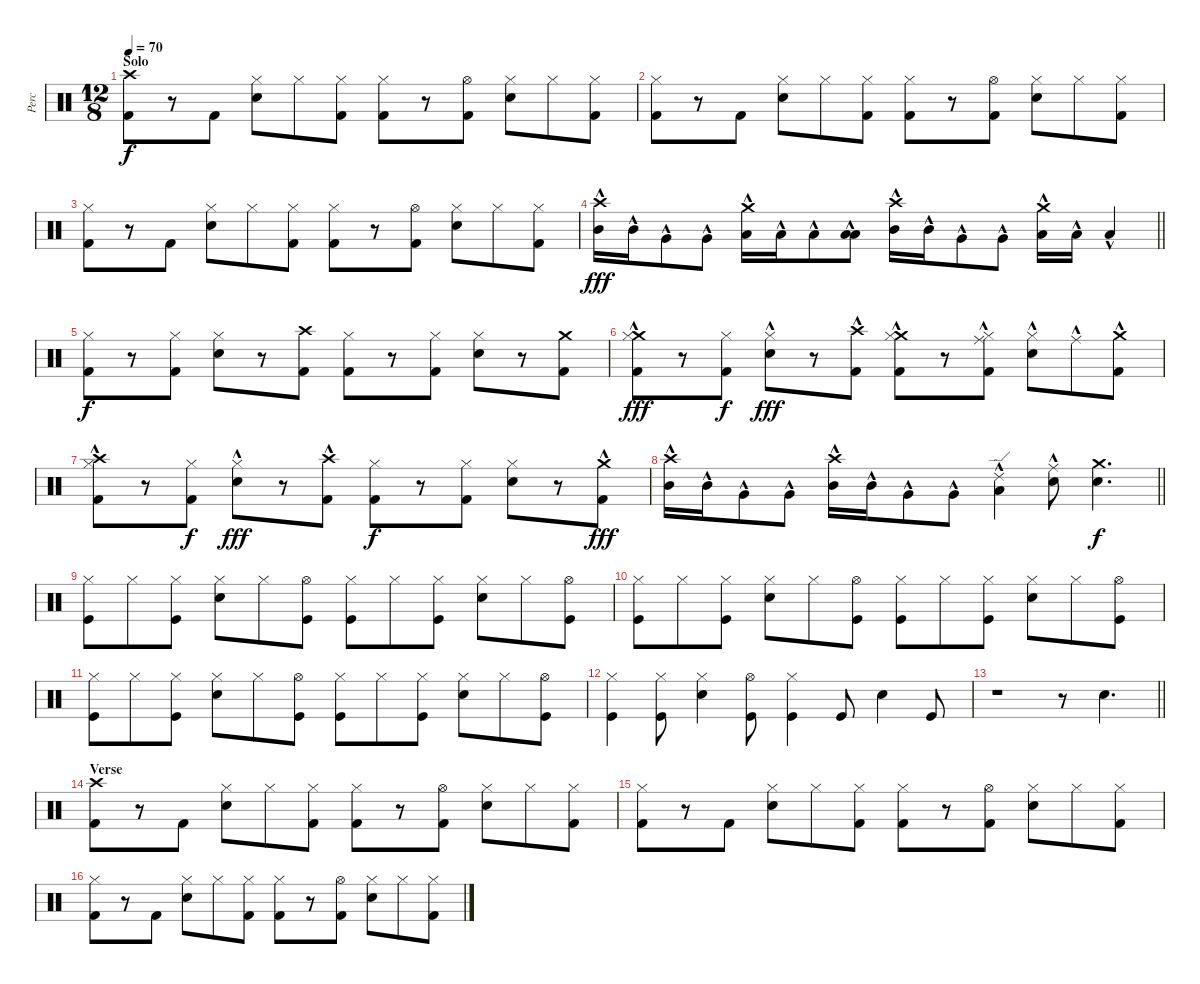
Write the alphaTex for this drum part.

\track ("Perc" "Perc") {instrument percussion}
\staff {score}
\articulation defaults
\ts (12 8)
\section ("" "Solo")
\tempo 70
\clef neutral
\ks c
("Crash high (hit)" "Kick (hit) 2").8{dy f} r.8 "Kick (hit) 2".8 ("Hi-Hat (closed)" "Electric Snare (hit)").8 "Hi-Hat (closed)".8 ("Hi-Hat (closed)" "Kick (hit) 2").8 ("Hi-Hat (closed)" "Kick (hit) 2").8 r.8 ("Hi-Hat (open)" "Kick (hit) 2").8 ("Hi-Hat (closed)" "Electric Snare (hit)").8 "Hi-Hat (closed)".8 ("Hi-Hat (closed)" "Kick (hit) 2").8 |
("Kick (hit) 2" "Hi-Hat (closed)").8 r.8 "Kick (hit) 2".8 ("Hi-Hat (closed)" "Electric Snare (hit)").8 "Hi-Hat (closed)".8 ("Hi-Hat (closed)" "Kick (hit) 2").8 ("Hi-Hat (closed)" "Kick (hit) 2").8 r.8 ("Hi-Hat (open)" "Kick (hit) 2").8 ("Hi-Hat (closed)" "Electric Snare (hit)").8 "Hi-Hat (closed)".8 ("Hi-Hat (closed)" "Kick (hit) 2").8 |
("Kick (hit) 2" "Hi-Hat (closed)").8 r.8 "Kick (hit) 2".8 ("Hi-Hat (closed)" "Electric Snare (hit)").8 "Hi-Hat (closed)".8 ("Hi-Hat (closed)" "Kick (hit) 2").8 ("Hi-Hat (closed)" "Kick (hit) 2").8 r.8 ("Hi-Hat (open)" "Kick (hit) 2").8 ("Hi-Hat (closed)" "Electric Snare (hit)").8 "Hi-Hat (closed)".8 ("Hi-Hat (closed)" "Kick (hit) 2").8 |
\barLineRight lightlight
("Mid Tom (hit)"{hac} "Crash high (hit)").16{dy fff} "Mid Tom (hit)"{hac}.16 "Very Low Tom (hit)"{hac}.8 "Very Low Tom (hit)"{hac}.8 ("Low Tom (hit)"{hac} "Crash medium (hit)").16 "Low Tom (hit)"{hac}.16 "Low Floor Tom (hit)"{hac}.8 ("Low Floor Tom (hit)"{hac} "Low Floor Tom (hit)").8 ("Mid Tom (hit)"{hac} "Crash high (hit)").16 "Mid Tom (hit)"{hac}.16 "Very Low Tom (hit)"{hac}.8 "Very Low Tom (hit)"{hac}.8 ("Low Tom (hit)"{hac} "Crash medium (hit)").16 "Low Tom (hit)"{hac}.16 "Low Floor Tom (hit)"{hac}.4 |
("Kick (hit) 2" "Hi-Hat (closed)").8{dy f} r.8 ("Kick (hit) 2" "Hi-Hat (closed)").8 ("Hi-Hat (closed)" "Electric Snare (hit)").8 r.8 ("Crash high (hit)" "Kick (hit) 2").8 ("Kick (hit) 2" "Hi-Hat (closed)").8 r.8 ("Kick (hit) 2" "Hi-Hat (closed)").8 ("Hi-Hat (closed)" "Electric Snare (hit)").8 r.8 ("Crash medium (hit)" "Kick (hit) 2").8 |
("Crash medium (hit)"{hac} "Kick (hit) 2" "Hi-Hat (closed)").8{dy fff} r.8 ("Kick (hit) 2" "Hi-Hat (closed)").8{dy f} ("Hi-Hat (closed)" "Electric Snare (hit)"{hac}).8{dy fff} r.8 ("Crash high (hit)"{hac} "Kick (hit) 2").8 ("Crash medium (hit)"{hac} "Kick (hit) 2" "Hi-Hat (closed)").8 r.8 ("Ride (middle)"{hac} "Kick (hit) 2" "Hi-Hat (closed)").8 ("Hi-Hat (closed)" "Electric Snare (hit)"{hac}).8 "Ride (middle)"{hac}.8 ("Crash medium (hit)"{hac} "Kick (hit) 2").8 |
("Crash high (hit)"{hac} "Kick (hit) 2" "Hi-Hat (closed)").8 r.8 ("Kick (hit) 2" "Hi-Hat (closed)").8{dy f} ("Hi-Hat (closed)" "Electric Snare (hit)"{hac}).8{dy fff} r.8 ("Crash high (hit)"{hac} "Kick (hit) 2").8 ("Kick (hit) 2" "Hi-Hat (closed)").8{dy f} r.8 ("Kick (hit) 2" "Hi-Hat (closed)").8 ("Hi-Hat (closed)" "Electric Snare (hit)").8 r.8 ("Crash medium (hit)"{hac} "Kick (hit) 2").8{dy fff} |
\barLineRight lightlight
("Mid Tom (hit)"{hac} "Crash high (hit)").16 "Mid Tom (hit)"{hac}.16 "Very Low Tom (hit)"{hac}.8 "Very Low Tom (hit)"{hac}.8 ("Mid Tom (hit)"{hac} "Crash high (hit)").16 "Mid Tom (hit)"{hac}.16 "Very Low Tom (hit)"{hac}.8 "Very Low Tom (hit)"{hac}.8 ("Low Floor Tom (hit)"{hac} "Ride (edge) 2").4 ("Snare (hit) 2"{hac} "Ride (middle)").8 ("Electric Snare (hit)" "Crash medium (hit)").4{d dy f} |
("Hi-Hat (closed)" "Kick (hit)").8 "Hi-Hat (closed)".8 ("Hi-Hat (closed)" "Kick (hit)").8 ("Hi-Hat (closed)" "Snare (hit) 2").8 "Hi-Hat (closed)".8 ("Hi-Hat (open)" "Kick (hit)").8 ("Hi-Hat (closed)" "Kick (hit)").8 "Hi-Hat (closed)".8 ("Hi-Hat (closed)" "Kick (hit)").8 ("Hi-Hat (closed)" "Snare (hit) 2").8 "Hi-Hat (closed)".8 ("Hi-Hat (open)" "Kick (hit)").8 |
("Hi-Hat (closed)" "Kick (hit)").8 "Hi-Hat (closed)".8 ("Hi-Hat (closed)" "Kick (hit)").8 ("Hi-Hat (closed)" "Snare (hit) 2").8 "Hi-Hat (closed)".8 ("Hi-Hat (open)" "Kick (hit)").8 ("Hi-Hat (closed)" "Kick (hit)").8 "Hi-Hat (closed)".8 ("Hi-Hat (closed)" "Kick (hit)").8 ("Hi-Hat (closed)" "Snare (hit) 2").8 "Hi-Hat (closed)".8 ("Hi-Hat (open)" "Kick (hit)").8 |
("Hi-Hat (closed)" "Kick (hit)").8 "Hi-Hat (closed)".8 ("Hi-Hat (closed)" "Kick (hit)").8 ("Hi-Hat (closed)" "Snare (hit) 2").8 "Hi-Hat (closed)".8 ("Hi-Hat (open)" "Kick (hit)").8 ("Hi-Hat (closed)" "Kick (hit)").8 "Hi-Hat (closed)".8 ("Hi-Hat (closed)" "Kick (hit)").8 ("Hi-Hat (closed)" "Snare (hit) 2").8 "Hi-Hat (closed)".8 ("Hi-Hat (open)" "Kick (hit)").8 |
("Hi-Hat (closed)" "Kick (hit)").4 ("Hi-Hat (closed)" "Kick (hit)").8 ("Hi-Hat (closed)" "Snare (hit) 2").4 ("Hi-Hat (open)" "Kick (hit)").8 ("Hi-Hat (closed)" "Kick (hit)").4 "Kick (hit)".8 "Snare (hit) 2".4 "Kick (hit)".8 |
\barLineRight lightlight
r.1 r.8 "Snare (hit) 2".4{d} |
\section ("" "Verse")
("Crash high (hit)" "Kick (hit) 2").8 r.8 "Kick (hit) 2".8 ("Hi-Hat (closed)" "Electric Snare (hit)").8 "Hi-Hat (closed)".8 ("Hi-Hat (closed)" "Kick (hit) 2").8 ("Hi-Hat (closed)" "Kick (hit) 2").8 r.8 ("Hi-Hat (open)" "Kick (hit) 2").8 ("Hi-Hat (closed)" "Electric Snare (hit)").8 "Hi-Hat (closed)".8 ("Hi-Hat (closed)" "Kick (hit) 2").8 |
("Kick (hit) 2" "Hi-Hat (closed)").8 r.8 "Kick (hit) 2".8 ("Hi-Hat (closed)" "Electric Snare (hit)").8 "Hi-Hat (closed)".8 ("Hi-Hat (closed)" "Kick (hit) 2").8 ("Hi-Hat (closed)" "Kick (hit) 2").8 r.8 ("Hi-Hat (open)" "Kick (hit) 2").8 ("Hi-Hat (closed)" "Electric Snare (hit)").8 "Hi-Hat (closed)".8 ("Hi-Hat (closed)" "Kick (hit) 2").8 |
("Kick (hit) 2" "Hi-Hat (closed)").8 r.8 "Kick (hit) 2".8 ("Hi-Hat (closed)" "Electric Snare (hit)").8 "Hi-Hat (closed)".8 ("Hi-Hat (closed)" "Kick (hit) 2").8 ("Hi-Hat (closed)" "Kick (hit) 2").8 r.8 ("Hi-Hat (open)" "Kick (hit) 2").8 ("Hi-Hat (closed)" "Electric Snare (hit)").8 "Hi-Hat (closed)".8 ("Hi-Hat (closed)" "Kick (hit) 2").8
